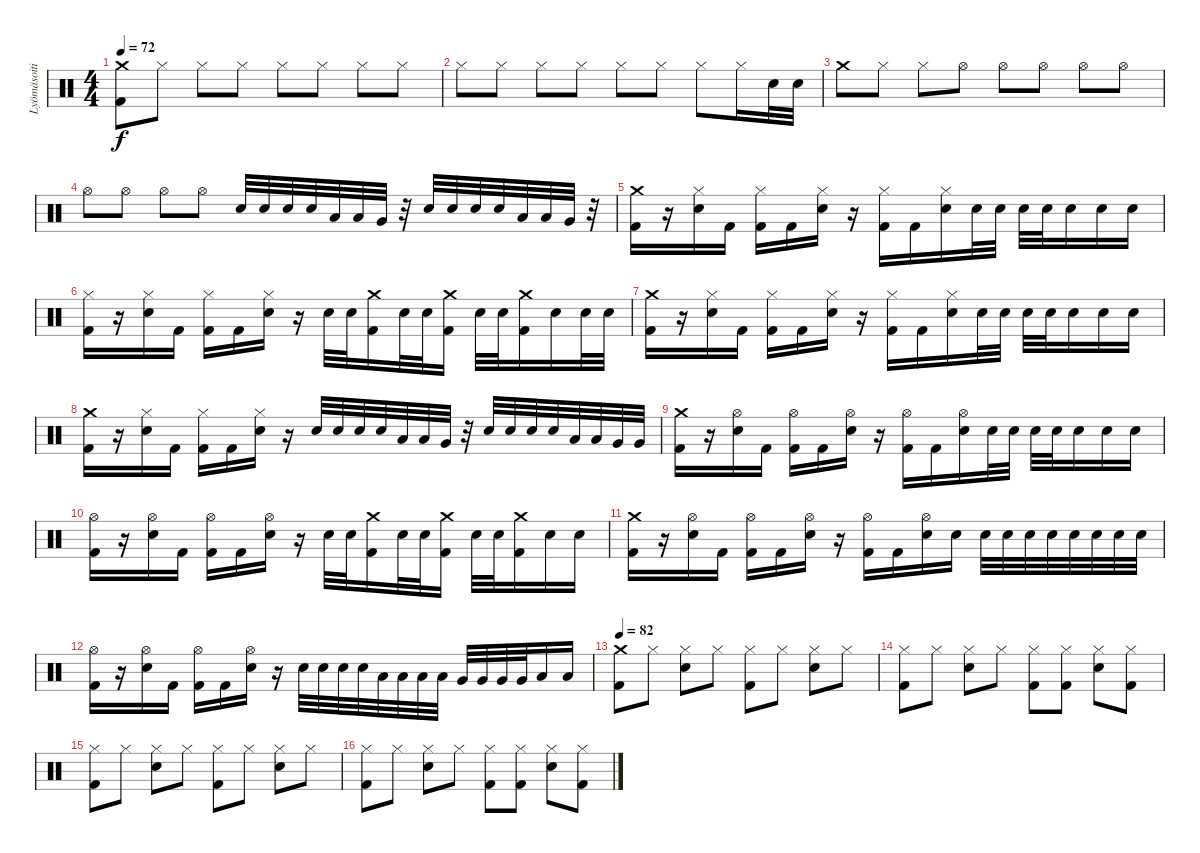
\track ("Lyömäsoitin" "Lyömäsoiti") {instrument percussion}
\staff {score}
\articulation defaults
\ts (4 4)
\tempo 72
\clef neutral
\ks c
("Crash medium (hit)" "Kick (hit) 2").8{dy f} "Hi-Hat (closed)".8 "Hi-Hat (closed)".8 "Hi-Hat (closed)".8 "Hi-Hat (closed)".8 "Hi-Hat (closed)".8 "Hi-Hat (closed)".8 "Hi-Hat (closed)".8 |
"Hi-Hat (closed)".8 "Hi-Hat (closed)".8 "Hi-Hat (closed)".8 "Hi-Hat (closed)".8 "Hi-Hat (closed)".8 "Hi-Hat (closed)".8 "Hi-Hat (closed)".8 "Hi-Hat (closed)".16 "Electric Snare (hit)".32 "Electric Snare (hit)".32 |
"Crash medium (hit)".8 "Hi-Hat (closed)".8 "Hi-Hat (closed)".8 "Hi-Hat (open)".8 "Hi-Hat (open)".8 "Hi-Hat (open)".8 "Hi-Hat (open)".8 "Hi-Hat (open)".8 |
"Hi-Hat (open)".8 "Hi-Hat (open)".8 "Hi-Hat (open)".8 "Hi-Hat (open)".8 "Electric Snare (hit)".32 "Electric Snare (hit)".32 "Electric Snare (hit)".32 "Electric Snare (hit)".32 "Low Tom (hit)".32 "Low Tom (hit)".32 "Very Low Tom (hit)".32 r.32 "Electric Snare (hit)".32 "Electric Snare (hit)".32 "Electric Snare (hit)".32 "Electric Snare (hit)".32 "Low Tom (hit)".32 "Low Tom (hit)".32 "Very Low Tom (hit)".32 r.32 |
("Crash medium (hit)" "Kick (hit) 2").16 r.16 ("Hi-Hat (closed)" "Electric Snare (hit)").16 "Kick (hit) 2".16 ("Hi-Hat (closed)" "Kick (hit) 2").16 "Kick (hit) 2".16 ("Hi-Hat (closed)" "Electric Snare (hit)").16 r.16 ("Hi-Hat (closed)" "Kick (hit) 2").16 "Kick (hit) 2".16 ("Hi-Hat (closed)" "Electric Snare (hit)").16 "Electric Snare (hit)".32 "Electric Snare (hit)".32 "Electric Snare (hit)".32 "Electric Snare (hit)".32 "Electric Snare (hit)".16 "Electric Snare (hit)".16 "Electric Snare (hit)".16 |
("Hi-Hat (closed)" "Kick (hit) 2").16 r.16 ("Hi-Hat (closed)" "Electric Snare (hit)").16 "Kick (hit) 2".16 ("Hi-Hat (closed)" "Kick (hit) 2").16 "Kick (hit) 2".16 ("Hi-Hat (closed)" "Electric Snare (hit)").16 r.16 "Electric Snare (hit)".32 "Electric Snare (hit)".32 ("Crash medium (hit)" "Kick (hit) 2").16 "Electric Snare (hit)".32 "Electric Snare (hit)".32 ("Crash medium (hit)" "Kick (hit) 2").16 "Electric Snare (hit)".32 "Electric Snare (hit)".32 ("Crash medium (hit)" "Kick (hit) 2").16 "Electric Snare (hit)".16 "Electric Snare (hit)".32 "Electric Snare (hit)".32 |
("Crash medium (hit)" "Kick (hit) 2").16 r.16 ("Hi-Hat (closed)" "Electric Snare (hit)").16 "Kick (hit) 2".16 ("Hi-Hat (closed)" "Kick (hit) 2").16 "Kick (hit) 2".16 ("Hi-Hat (closed)" "Electric Snare (hit)").16 r.16 ("Hi-Hat (closed)" "Kick (hit) 2").16 "Kick (hit) 2".16 ("Hi-Hat (closed)" "Electric Snare (hit)").16 "Electric Snare (hit)".32 "Electric Snare (hit)".32 "Electric Snare (hit)".32 "Electric Snare (hit)".32 "Electric Snare (hit)".16 "Electric Snare (hit)".16 "Electric Snare (hit)".16 |
("Crash medium (hit)" "Kick (hit) 2").16 r.16 ("Hi-Hat (closed)" "Electric Snare (hit)").16 "Kick (hit) 2".16 ("Hi-Hat (closed)" "Kick (hit) 2").16 "Kick (hit) 2".16 ("Hi-Hat (closed)" "Electric Snare (hit)").16 r.16 "Electric Snare (hit)".32 "Electric Snare (hit)".32 "Electric Snare (hit)".32 "Electric Snare (hit)".32 "Low Tom (hit)".32 "Low Tom (hit)".32 "Very Low Tom (hit)".32 r.32 "Electric Snare (hit)".32 "Electric Snare (hit)".32 "Electric Snare (hit)".32 "Electric Snare (hit)".32 "Low Tom (hit)".32 "Low Tom (hit)".32 "Very Low Tom (hit)".32 "Very Low Tom (hit)".32 |
("Crash medium (hit)" "Kick (hit) 2").16 r.16 ("Hi-Hat (open)" "Electric Snare (hit)").16 "Kick (hit) 2".16 ("Hi-Hat (open)" "Kick (hit) 2").16 "Kick (hit) 2".16 ("Hi-Hat (open)" "Electric Snare (hit)").16 r.16 ("Hi-Hat (open)" "Kick (hit) 2").16 "Kick (hit) 2".16 ("Hi-Hat (open)" "Electric Snare (hit)").16 "Electric Snare (hit)".32 "Electric Snare (hit)".32 "Electric Snare (hit)".32 "Electric Snare (hit)".32 "Electric Snare (hit)".16 "Electric Snare (hit)".16 "Electric Snare (hit)".16 |
("Hi-Hat (open)" "Kick (hit) 2").16 r.16 ("Hi-Hat (open)" "Electric Snare (hit)").16 "Kick (hit) 2".16 ("Hi-Hat (open)" "Kick (hit) 2").16 "Kick (hit) 2".16 ("Hi-Hat (open)" "Electric Snare (hit)").16 r.16 "Electric Snare (hit)".32 "Electric Snare (hit)".32 ("Crash medium (hit)" "Kick (hit) 2").16 "Electric Snare (hit)".32 "Electric Snare (hit)".32 ("Crash medium (hit)" "Kick (hit) 2").16 "Electric Snare (hit)".32 "Electric Snare (hit)".32 ("Crash medium (hit)" "Kick (hit) 2").16 "Electric Snare (hit)".16 "Electric Snare (hit)".16 |
("Crash medium (hit)" "Kick (hit) 2").16 r.16 ("Hi-Hat (open)" "Electric Snare (hit)").16 "Kick (hit) 2".16 ("Hi-Hat (open)" "Kick (hit) 2").16 "Kick (hit) 2".16 ("Hi-Hat (open)" "Electric Snare (hit)").16 r.16 ("Hi-Hat (open)" "Kick (hit) 2").16 "Kick (hit) 2".16 ("Hi-Hat (open)" "Electric Snare (hit)").16 "Electric Snare (hit)".16 "Electric Snare (hit)".32 "Electric Snare (hit)".32 "Electric Snare (hit)".32 "Electric Snare (hit)".32 "Electric Snare (hit)".32 "Electric Snare (hit)".32 "Electric Snare (hit)".32 "Electric Snare (hit)".32 |
("Hi-Hat (open)" "Kick (hit) 2").16 r.16 ("Hi-Hat (open)" "Electric Snare (hit)").16 "Kick (hit) 2".16 ("Hi-Hat (open)" "Kick (hit) 2").16 "Kick (hit) 2".16 ("Hi-Hat (open)" "Electric Snare (hit)").16 r.16 "Electric Snare (hit)".32 "Electric Snare (hit)".32 "Electric Snare (hit)".32 "Electric Snare (hit)".32 "Low Tom (hit)".32 "Low Tom (hit)".32 "Low Tom (hit)".32 "Low Tom (hit)".32 "Very Low Tom (hit)".32 "Very Low Tom (hit)".32 "Very Low Tom (hit)".32 "Very Low Tom (hit)".32 "Low Floor Tom (hit)".16 "Low Floor Tom (hit)".16 |
\tempo 82
("Crash medium (hit)" "Kick (hit) 2").8 "Hi-Hat (closed)".8 ("Hi-Hat (closed)" "Electric Snare (hit)").8 "Hi-Hat (closed)".8 ("Hi-Hat (closed)" "Kick (hit) 2").8 "Hi-Hat (closed)".8 ("Hi-Hat (closed)" "Electric Snare (hit)").8 "Hi-Hat (closed)".8 |
("Hi-Hat (closed)" "Kick (hit) 2").8 "Hi-Hat (closed)".8 ("Hi-Hat (closed)" "Electric Snare (hit)").8 "Hi-Hat (closed)".8 ("Hi-Hat (closed)" "Kick (hit) 2").8 ("Hi-Hat (closed)" "Kick (hit) 2").8 ("Hi-Hat (closed)" "Electric Snare (hit)").8 ("Hi-Hat (closed)" "Kick (hit) 2").8 |
("Hi-Hat (closed)" "Kick (hit) 2").8 "Hi-Hat (closed)".8 ("Hi-Hat (closed)" "Electric Snare (hit)").8 "Hi-Hat (closed)".8 ("Hi-Hat (closed)" "Kick (hit) 2").8 "Hi-Hat (closed)".8 ("Hi-Hat (closed)" "Electric Snare (hit)").8 "Hi-Hat (closed)".8 |
("Hi-Hat (closed)" "Kick (hit) 2").8 "Hi-Hat (closed)".8 ("Hi-Hat (closed)" "Electric Snare (hit)").8 "Hi-Hat (closed)".8 ("Hi-Hat (closed)" "Kick (hit) 2").8 ("Hi-Hat (closed)" "Kick (hit) 2").8 ("Hi-Hat (closed)" "Electric Snare (hit)").8 ("Hi-Hat (closed)" "Kick (hit) 2").8
